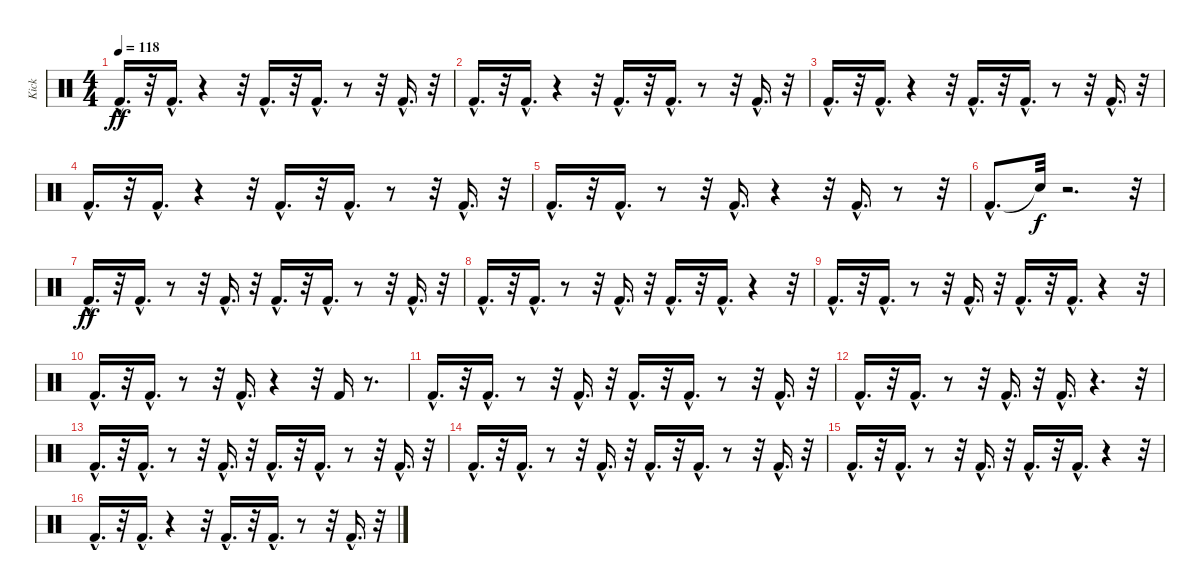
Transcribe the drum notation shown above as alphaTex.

\track ("Kick                " "Kick      ") {instrument percussion}
\staff {score}
\articulation defaults
\ts (4 4)
\tempo 118
\clef neutral
\ks c "Kick (hit) 2"{hac}.16{d dy ff}
r.32 "Kick (hit) 2"{hac}.16{d} r.4 r.32 "Kick (hit) 2"{hac}.16{d} r.32 "Kick (hit) 2"{hac}.16{d} r.8 r.32 "Kick (hit) 2"{hac}.16{d} r.32 |
"Kick (hit) 2"{hac}.16{d} r.32 "Kick (hit) 2"{hac}.16{d} r.4 r.32 "Kick (hit) 2"{hac}.16{d} r.32 "Kick (hit) 2"{hac}.16{d} r.8 r.32 "Kick (hit) 2"{hac}.16{d} r.32 |
"Kick (hit) 2"{hac}.16{d} r.32 "Kick (hit) 2"{hac}.16{d} r.4 r.32 "Kick (hit) 2"{hac}.16{d} r.32 "Kick (hit) 2"{hac}.16{d} r.8 r.32 "Kick (hit) 2"{hac}.16{d} r.32 |
"Kick (hit) 2"{hac}.16{d} r.32 "Kick (hit) 2"{hac}.16{d} r.4 r.32 "Kick (hit) 2"{hac}.16{d} r.32 "Kick (hit) 2"{hac}.16{d} r.8 r.32 "Kick (hit) 2"{hac}.16{d} r.32 |
"Kick (hit) 2"{hac}.16{d} r.32 "Kick (hit) 2"{hac}.16{d} r.8 r.32 "Kick (hit) 2"{hac}.16{d} r.4 r.32 "Kick (hit) 2"{hac}.16{d} r.8 r.32 |
"Kick (hit) 2"{hac}.8{d} "Snare (hit)"{t}.32{dy f} r.2{d} r.32 |
"Kick (hit) 2"{hac}.16{d dy ff} r.32 "Kick (hit) 2"{hac}.16{d} r.8 r.32 "Kick (hit) 2"{hac}.16{d} r.32 "Kick (hit) 2"{hac}.16{d} r.32 "Kick (hit) 2"{hac}.16{d} r.8 r.32 "Kick (hit) 2"{hac}.16{d} r.32 |
"Kick (hit) 2"{hac}.16{d} r.32 "Kick (hit) 2"{hac}.16{d} r.8 r.32 "Kick (hit) 2"{hac}.16{d} r.32 "Kick (hit) 2"{hac}.16{d} r.32 "Kick (hit) 2"{hac}.16{d} r.4 r.32 |
"Kick (hit) 2"{hac}.16{d} r.32 "Kick (hit) 2"{hac}.16{d} r.8 r.32 "Kick (hit) 2"{hac}.16{d} r.32 "Kick (hit) 2"{hac}.16{d} r.32 "Kick (hit) 2"{hac}.16{d} r.4 r.32 |
"Kick (hit) 2"{hac}.16{d} r.32 "Kick (hit) 2"{hac}.16{d} r.8 r.32 "Kick (hit) 2"{hac}.16{d} r.4 r.32 "Kick (hit) 2".16 r.8{d} |
"Kick (hit) 2"{hac}.16{d} r.32 "Kick (hit) 2"{hac}.16{d} r.8 r.32 "Kick (hit) 2"{hac}.16{d} r.32 "Kick (hit) 2"{hac}.16{d} r.32 "Kick (hit) 2"{hac}.16{d} r.8 r.32 "Kick (hit) 2"{hac}.16{d} r.32 |
"Kick (hit) 2"{hac}.16{d} r.32 "Kick (hit) 2"{hac}.16{d} r.8 r.32 "Kick (hit) 2"{hac}.16{d} r.32 "Kick (hit) 2"{hac}.16{d} r.4{d} r.32 |
"Kick (hit) 2"{hac}.16{d} r.32 "Kick (hit) 2"{hac}.16{d} r.8 r.32 "Kick (hit) 2"{hac}.16{d} r.32 "Kick (hit) 2"{hac}.16{d} r.32 "Kick (hit) 2"{hac}.16{d} r.8 r.32 "Kick (hit) 2"{hac}.16{d} r.32 |
"Kick (hit) 2"{hac}.16{d} r.32 "Kick (hit) 2"{hac}.16{d} r.8 r.32 "Kick (hit) 2"{hac}.16{d} r.32 "Kick (hit) 2"{hac}.16{d} r.32 "Kick (hit) 2"{hac}.16{d} r.8 r.32 "Kick (hit) 2"{hac}.16{d} r.32 |
"Kick (hit) 2"{hac}.16{d} r.32 "Kick (hit) 2"{hac}.16{d} r.8 r.32 "Kick (hit) 2"{hac}.16{d} r.32 "Kick (hit) 2"{hac}.16{d} r.32 "Kick (hit) 2"{hac}.16{d} r.4 r.32 |
"Kick (hit) 2"{hac}.16{d} r.32 "Kick (hit) 2"{hac}.16{d} r.4 r.32 "Kick (hit) 2"{hac}.16{d} r.32 "Kick (hit) 2"{hac}.16{d} r.8 r.32 "Kick (hit) 2"{hac}.16{d} r.32
